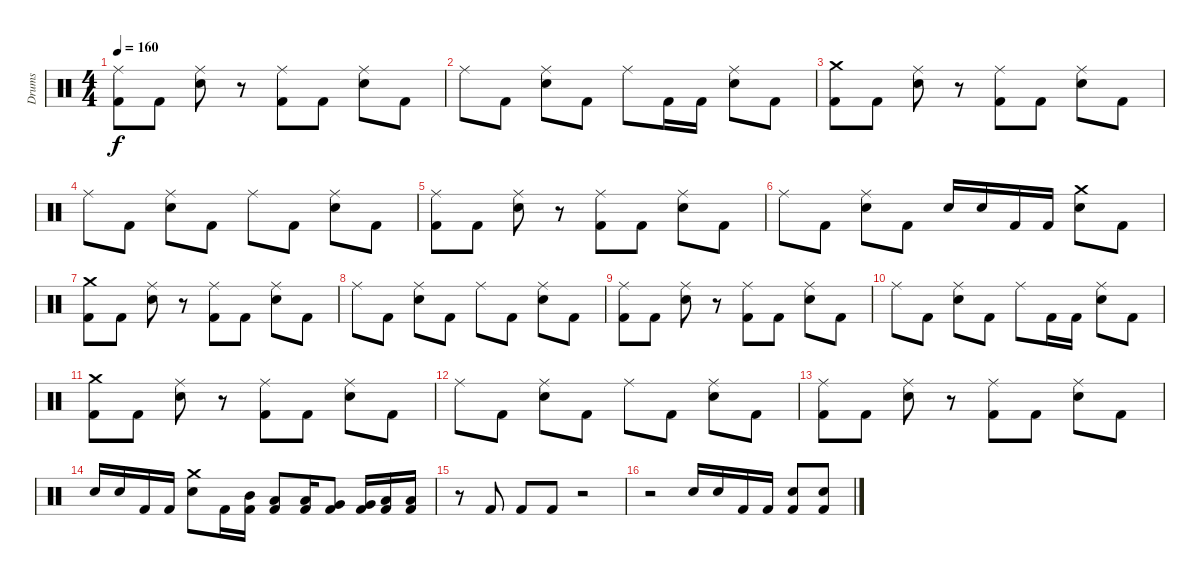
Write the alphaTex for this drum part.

\track ("Drums" "Drums") {instrument percussion}
\staff {score}
\articulation defaults
\ts (4 4)
\tempo 160
\clef neutral
\ks c
("Ride (middle)" "Kick (hit) 2").8{dy f} "Kick (hit) 2".8 ("Ride (middle)" "Electric Snare (hit)").8 r.8 ("Ride (middle)" "Kick (hit) 2").8 "Kick (hit) 2".8 ("Ride (middle)" "Electric Snare (hit)").8 "Kick (hit) 2".8 |
"Ride (middle)".8 "Kick (hit) 2".8 ("Ride (middle)" "Electric Snare (hit)").8 "Kick (hit) 2".8 "Ride (middle)".8 "Kick (hit) 2".16 "Kick (hit) 2".16 ("Ride (middle)" "Electric Snare (hit)").8 "Kick (hit) 2".8 |
("Crash medium (hit)" "Kick (hit) 2").8 "Kick (hit) 2".8 ("Ride (middle)" "Electric Snare (hit)").8 r.8 ("Ride (middle)" "Kick (hit) 2").8 "Kick (hit) 2".8 ("Ride (middle)" "Electric Snare (hit)").8 "Kick (hit) 2".8 |
"Ride (middle)".8 "Kick (hit) 2".8 ("Ride (middle)" "Electric Snare (hit)").8 "Kick (hit) 2".8 "Ride (middle)".8 "Kick (hit) 2".8 ("Ride (middle)" "Electric Snare (hit)").8 "Kick (hit) 2".8 |
("Ride (middle)" "Kick (hit) 2").8 "Kick (hit) 2".8 ("Ride (middle)" "Electric Snare (hit)").8 r.8 ("Ride (middle)" "Kick (hit) 2").8 "Kick (hit) 2".8 ("Ride (middle)" "Electric Snare (hit)").8 "Kick (hit) 2".8 |
"Ride (middle)".8 "Kick (hit) 2".8 ("Ride (middle)" "Electric Snare (hit)").8 "Kick (hit) 2".8 "Electric Snare (hit)".16 "Electric Snare (hit)".16 "Kick (hit) 2".16 "Kick (hit) 2".16 ("Crash medium (hit)" "Electric Snare (hit)").8 "Kick (hit) 2".8 |
("Crash medium (hit)" "Kick (hit) 2").8 "Kick (hit) 2".8 ("Ride (middle)" "Electric Snare (hit)").8 r.8 ("Ride (middle)" "Kick (hit) 2").8 "Kick (hit) 2".8 ("Ride (middle)" "Electric Snare (hit)").8 "Kick (hit) 2".8 |
"Ride (middle)".8 "Kick (hit) 2".8 ("Ride (middle)" "Electric Snare (hit)").8 "Kick (hit) 2".8 "Ride (middle)".8 "Kick (hit) 2".8 ("Ride (middle)" "Electric Snare (hit)").8 "Kick (hit) 2".8 |
("Ride (middle)" "Kick (hit) 2").8 "Kick (hit) 2".8 ("Ride (middle)" "Electric Snare (hit)").8 r.8 ("Ride (middle)" "Kick (hit) 2").8 "Kick (hit) 2".8 ("Ride (middle)" "Electric Snare (hit)").8 "Kick (hit) 2".8 |
"Ride (middle)".8 "Kick (hit) 2".8 ("Ride (middle)" "Electric Snare (hit)").8 "Kick (hit) 2".8 "Ride (middle)".8 "Kick (hit) 2".16 "Kick (hit) 2".16 ("Ride (middle)" "Electric Snare (hit)").8 "Kick (hit) 2".8 |
("Crash medium (hit)" "Kick (hit) 2").8 "Kick (hit) 2".8 ("Ride (middle)" "Electric Snare (hit)").8 r.8 ("Ride (middle)" "Kick (hit) 2").8 "Kick (hit) 2".8 ("Ride (middle)" "Electric Snare (hit)").8 "Kick (hit) 2".8 |
"Ride (middle)".8 "Kick (hit) 2".8 ("Ride (middle)" "Electric Snare (hit)").8 "Kick (hit) 2".8 "Ride (middle)".8 "Kick (hit) 2".8 ("Ride (middle)" "Electric Snare (hit)").8 "Kick (hit) 2".8 |
("Ride (middle)" "Kick (hit) 2").8 "Kick (hit) 2".8 ("Ride (middle)" "Electric Snare (hit)").8 r.8 ("Ride (middle)" "Kick (hit) 2").8 "Kick (hit) 2".8 ("Ride (middle)" "Electric Snare (hit)").8 "Kick (hit) 2".8 |
"Electric Snare (hit)".16 "Electric Snare (hit)".16 "Kick (hit) 2".16 "Kick (hit) 2".16 ("Crash medium (hit)" "Electric Snare (hit)").8 "Kick (hit) 2".16 ("Mid Tom (hit)" "Kick (hit) 2").16 ("Low Tom (hit)" "Kick (hit) 2").8 ("Low Tom (hit)" "Kick (hit) 2").16 ("Very Low Tom (hit)" "Kick (hit) 2").8 ("Very Low Tom (hit)" "Kick (hit) 2").16 ("Low Floor Tom (hit)" "Kick (hit) 2").16 ("Low Floor Tom (hit)" "Kick (hit) 2").16 |
r.8 "Kick (hit) 2".8 "Kick (hit) 2".8 "Kick (hit) 2".8 r.2 |
r.2 "Electric Snare (hit)".16 "Electric Snare (hit)".16 "Kick (hit) 2".16 "Kick (hit) 2".16 ("Electric Snare (hit)" "Kick (hit) 2").8 ("Electric Snare (hit)" "Kick (hit) 2").8
